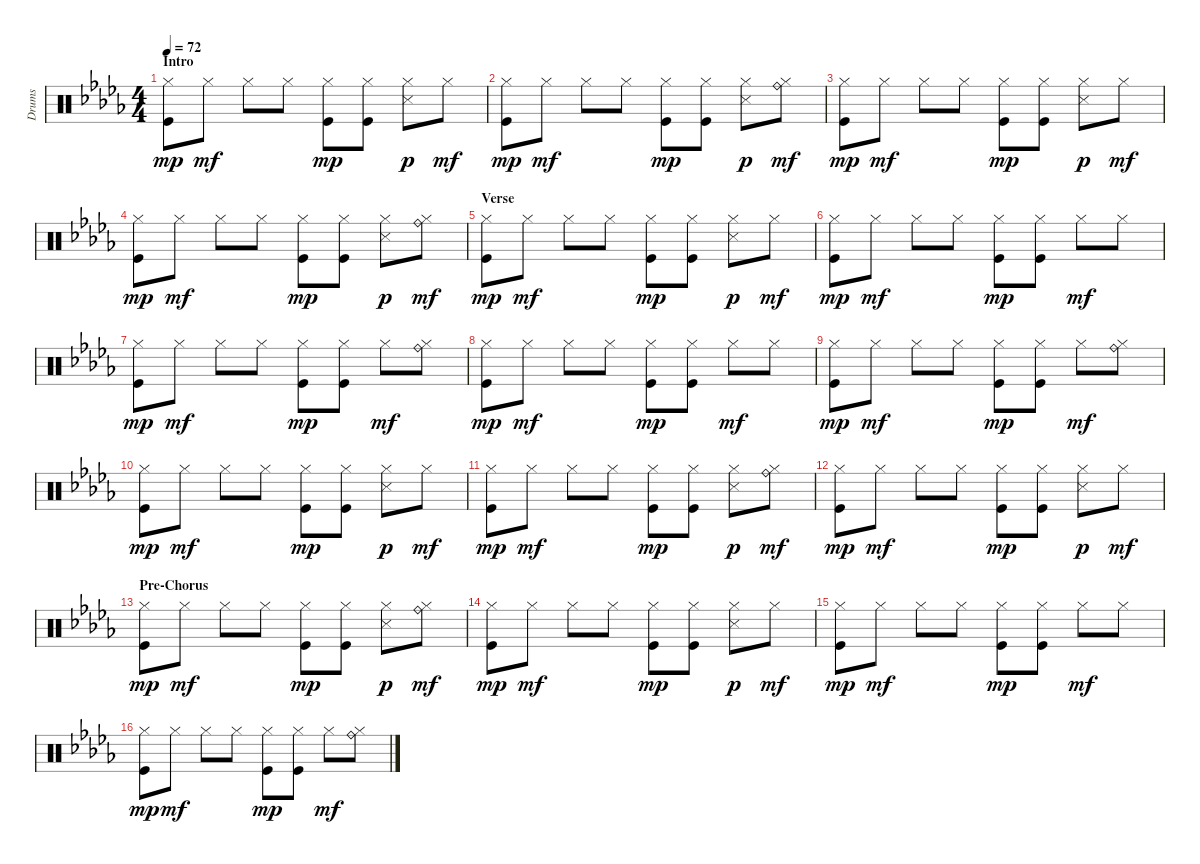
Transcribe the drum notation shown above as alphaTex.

\track ("Drums" "Drums") {instrument percussion}
\staff {score}
\articulation defaults
\ts (4 4)
\section ("" "Intro")
\tempo 72
\clef neutral
\ks db
("Hi-Hat (closed)" "Kick (hit)").8{dy mp} "Hi-Hat (closed)".8{dy mf} "Hi-Hat (closed)".8 "Hi-Hat (closed)".8 ("Hi-Hat (closed)" "Kick (hit)").8{dy mp} ("Hi-Hat (closed)" "Kick (hit)").8 ("Hi-Hat (closed)" "Snare (side stick) 3").8{dy p} "Hi-Hat (closed)".8{dy mf} |
("Hi-Hat (closed)" "Kick (hit)").8{dy mp} "Hi-Hat (closed)".8{dy mf} "Hi-Hat (closed)".8 "Hi-Hat (closed)".8 ("Hi-Hat (closed)" "Kick (hit)").8{dy mp} ("Hi-Hat (closed)" "Kick (hit)").8 ("Hi-Hat (closed)" "Snare (side stick) 3").8{dy p} ("Ride (bell)" "Hi-Hat (closed)").8{dy mf} |
("Hi-Hat (closed)" "Kick (hit)").8{dy mp} "Hi-Hat (closed)".8{dy mf} "Hi-Hat (closed)".8 "Hi-Hat (closed)".8 ("Hi-Hat (closed)" "Kick (hit)").8{dy mp} ("Hi-Hat (closed)" "Kick (hit)").8 ("Hi-Hat (closed)" "Snare (side stick) 3").8{dy p} "Hi-Hat (closed)".8{dy mf} |
("Hi-Hat (closed)" "Kick (hit)").8{dy mp} "Hi-Hat (closed)".8{dy mf} "Hi-Hat (closed)".8 "Hi-Hat (closed)".8 ("Hi-Hat (closed)" "Kick (hit)").8{dy mp} ("Hi-Hat (closed)" "Kick (hit)").8 ("Hi-Hat (closed)" "Snare (side stick) 3").8{dy p} ("Ride (bell)" "Hi-Hat (closed)").8{dy mf} |
\section ("" "Verse")
("Hi-Hat (closed)" "Kick (hit)").8{dy mp} "Hi-Hat (closed)".8{dy mf} "Hi-Hat (closed)".8 "Hi-Hat (closed)".8 ("Hi-Hat (closed)" "Kick (hit)").8{dy mp} ("Hi-Hat (closed)" "Kick (hit)").8 ("Hi-Hat (closed)" "Snare (side stick) 3").8{dy p} "Hi-Hat (closed)".8{dy mf} |
("Hi-Hat (closed)" "Kick (hit)").8{dy mp} "Hi-Hat (closed)".8{dy mf} "Hi-Hat (closed)".8 "Hi-Hat (closed)".8 ("Hi-Hat (closed)" "Kick (hit)").8{dy mp} ("Hi-Hat (closed)" "Kick (hit)").8 "Hi-Hat (closed)".8{dy mf} "Hi-Hat (closed)".8 |
("Hi-Hat (closed)" "Kick (hit)").8{dy mp} "Hi-Hat (closed)".8{dy mf} "Hi-Hat (closed)".8 "Hi-Hat (closed)".8 ("Hi-Hat (closed)" "Kick (hit)").8{dy mp} ("Hi-Hat (closed)" "Kick (hit)").8 "Hi-Hat (closed)".8{dy mf} ("Ride (bell)" "Hi-Hat (closed)").8 |
("Hi-Hat (closed)" "Kick (hit)").8{dy mp} "Hi-Hat (closed)".8{dy mf} "Hi-Hat (closed)".8 "Hi-Hat (closed)".8 ("Hi-Hat (closed)" "Kick (hit)").8{dy mp} ("Hi-Hat (closed)" "Kick (hit)").8 "Hi-Hat (closed)".8{dy mf} "Hi-Hat (closed)".8 |
("Hi-Hat (closed)" "Kick (hit)").8{dy mp} "Hi-Hat (closed)".8{dy mf} "Hi-Hat (closed)".8 "Hi-Hat (closed)".8 ("Hi-Hat (closed)" "Kick (hit)").8{dy mp} ("Hi-Hat (closed)" "Kick (hit)").8 "Hi-Hat (closed)".8{dy mf} ("Ride (bell)" "Hi-Hat (closed)").8 |
("Hi-Hat (closed)" "Kick (hit)").8{dy mp} "Hi-Hat (closed)".8{dy mf} "Hi-Hat (closed)".8 "Hi-Hat (closed)".8 ("Hi-Hat (closed)" "Kick (hit)").8{dy mp} ("Hi-Hat (closed)" "Kick (hit)").8 ("Hi-Hat (closed)" "Snare (side stick) 3").8{dy p} "Hi-Hat (closed)".8{dy mf} |
("Hi-Hat (closed)" "Kick (hit)").8{dy mp} "Hi-Hat (closed)".8{dy mf} "Hi-Hat (closed)".8 "Hi-Hat (closed)".8 ("Hi-Hat (closed)" "Kick (hit)").8{dy mp} ("Hi-Hat (closed)" "Kick (hit)").8 ("Hi-Hat (closed)" "Snare (side stick) 3").8{dy p} ("Ride (bell)" "Hi-Hat (closed)").8{dy mf} |
("Hi-Hat (closed)" "Kick (hit)").8{dy mp} "Hi-Hat (closed)".8{dy mf} "Hi-Hat (closed)".8 "Hi-Hat (closed)".8 ("Hi-Hat (closed)" "Kick (hit)").8{dy mp} ("Hi-Hat (closed)" "Kick (hit)").8 ("Hi-Hat (closed)" "Snare (side stick) 3").8{dy p} "Hi-Hat (closed)".8{dy mf} |
\section ("" "Pre-Chorus")
("Hi-Hat (closed)" "Kick (hit)").8{dy mp} "Hi-Hat (closed)".8{dy mf} "Hi-Hat (closed)".8 "Hi-Hat (closed)".8 ("Hi-Hat (closed)" "Kick (hit)").8{dy mp} ("Hi-Hat (closed)" "Kick (hit)").8 ("Hi-Hat (closed)" "Snare (side stick) 3").8{dy p} ("Ride (bell)" "Hi-Hat (closed)").8{dy mf} |
("Hi-Hat (closed)" "Kick (hit)").8{dy mp} "Hi-Hat (closed)".8{dy mf} "Hi-Hat (closed)".8 "Hi-Hat (closed)".8 ("Hi-Hat (closed)" "Kick (hit)").8{dy mp} ("Hi-Hat (closed)" "Kick (hit)").8 ("Hi-Hat (closed)" "Snare (side stick) 3").8{dy p} "Hi-Hat (closed)".8{dy mf} |
("Hi-Hat (closed)" "Kick (hit)").8{dy mp} "Hi-Hat (closed)".8{dy mf} "Hi-Hat (closed)".8 "Hi-Hat (closed)".8 ("Hi-Hat (closed)" "Kick (hit)").8{dy mp} ("Hi-Hat (closed)" "Kick (hit)").8 "Hi-Hat (closed)".8{dy mf} "Hi-Hat (closed)".8 |
("Hi-Hat (closed)" "Kick (hit)").8{dy mp} "Hi-Hat (closed)".8{dy mf} "Hi-Hat (closed)".8 "Hi-Hat (closed)".8 ("Hi-Hat (closed)" "Kick (hit)").8{dy mp} ("Hi-Hat (closed)" "Kick (hit)").8 "Hi-Hat (closed)".8{dy mf} ("Ride (bell)" "Hi-Hat (closed)").8
